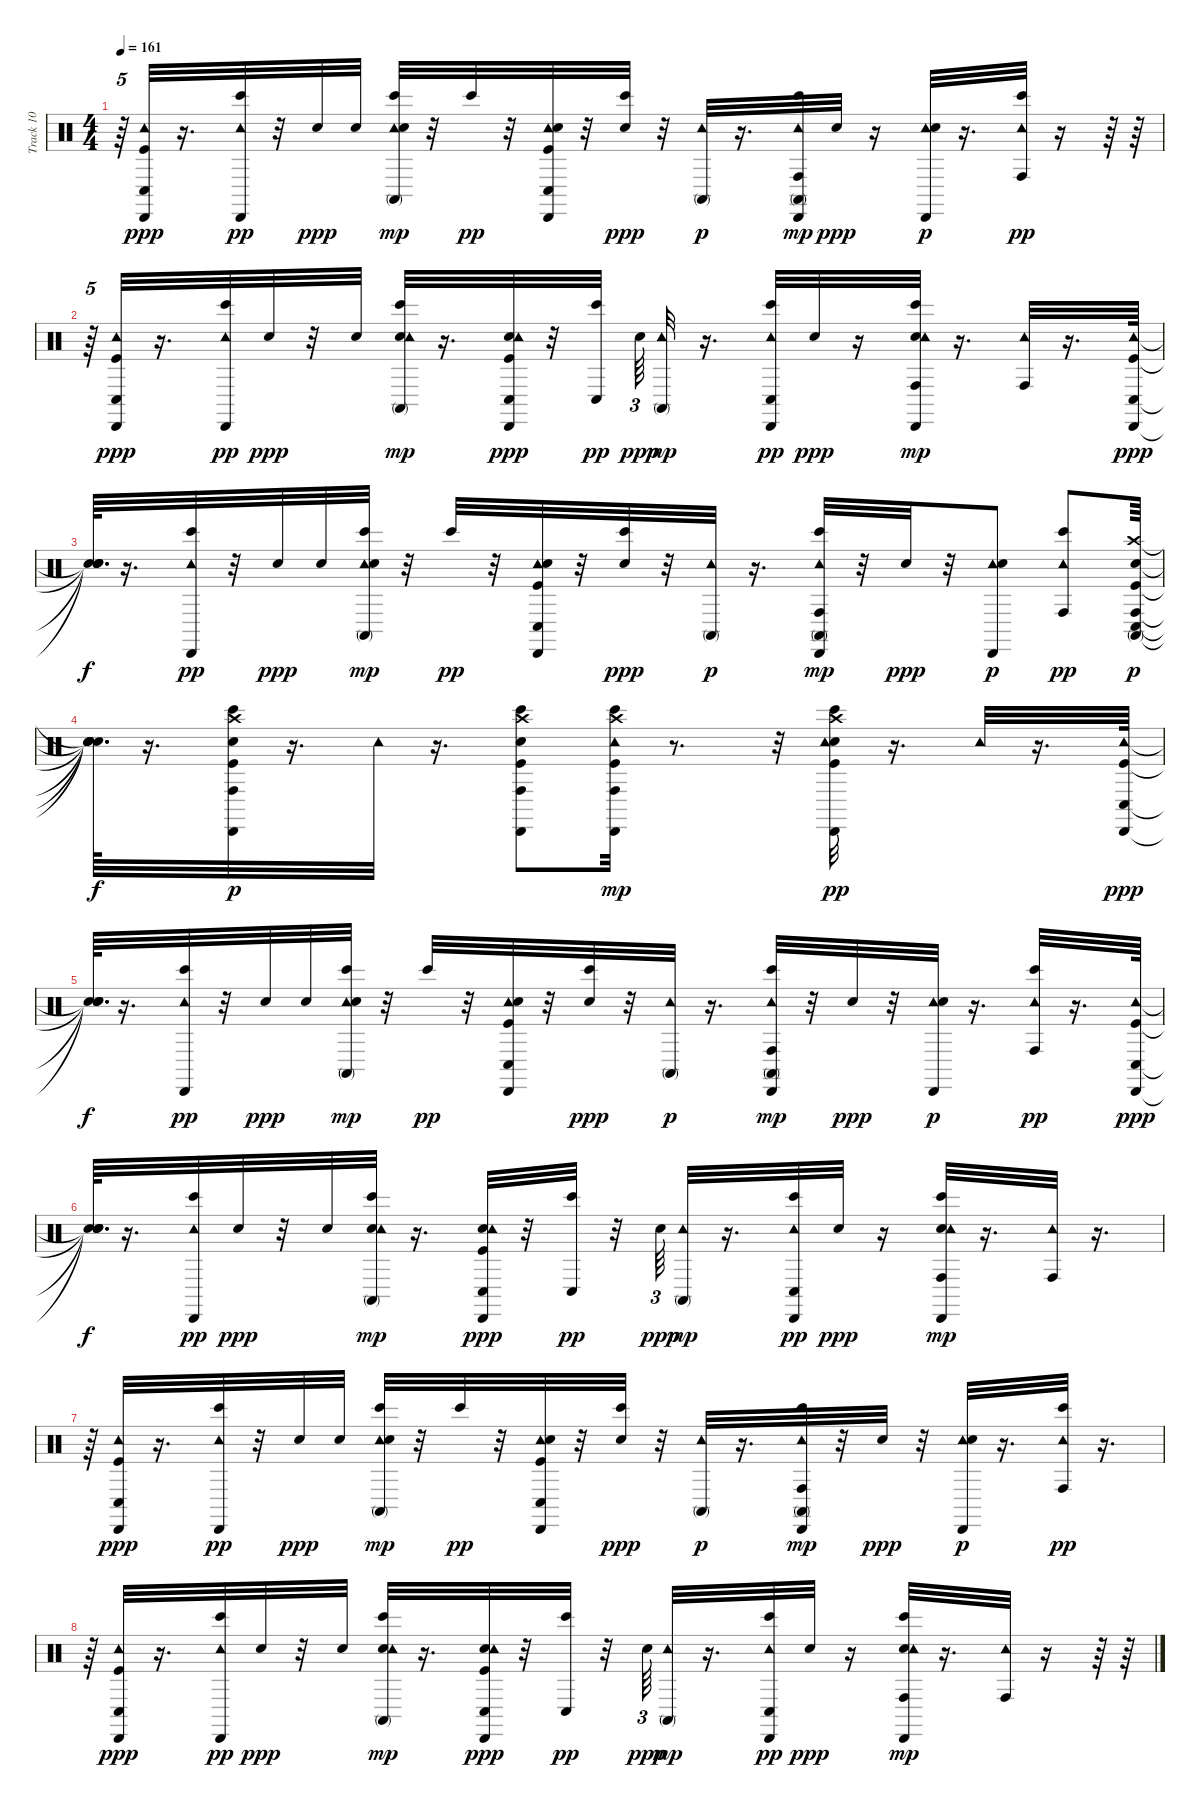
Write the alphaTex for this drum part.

\track ("Track 10" "Track 10") {instrument percussion}
\staff {score}
\articulation defaults
\ts (4 4)
\tempo 161
\clef neutral
\ks c
r.64{tu (5 4) dy mp} ("Kick (hit)" "Tambourine (hit)" "Cabasa (hit)" "Conga low (hit)").32{dy ppp} r.16{d} ("Tambourine (hit)" "Cabasa (hit)" "Bongo High (hit)").32{dy pp} r.32 "Electric Snare (hit)".32{dy ppp} "Electric Snare (hit)".32 ("Tambourine (hit)" "Bongo High (hit)" "Conga high (mute)" "Electric Snare (hit)").32{dy mp} r.32 "Bongo High (hit)".32{dy pp} r.32 ("Tambourine (hit)" "Conga low (hit)" "Cabasa (hit)" "Kick (hit)" "Electric Snare (hit)").32 r.32 ("Bongo High (hit)" "Electric Snare (hit)").32{dy ppp} r.32 ("Tambourine (hit)" "Conga high (mute)").32{dy p} r.16{d} ("Tambourine (hit)" "Cabasa (hit)" "Bongo High (hit)" "Conga high (mute)" "Conga high (hit)").32{dy mp} "Electric Snare (hit)".32{dy ppp} r.16 ("Tambourine (hit)" "Cabasa (hit)" "Electric Snare (hit)").32{dy p} r.16{d} ("Tambourine (hit)" "Conga high (hit)" "Bongo High (hit)").32{dy pp} r.16 r.64 r.64 |
r.64{tu (5 4)} ("Kick (hit)" "Tambourine (hit)" "Cabasa (hit)" "Conga low (hit)").32{dy ppp} r.16{d} ("Tambourine (hit)" "Cabasa (hit)" "Bongo High (hit)").32{dy pp} "Electric Snare (hit)".32{dy ppp} r.32 "Electric Snare (hit)".32 ("Electric Snare (hit)" "Tambourine (hit)" "Bongo High (hit)" "Conga high (mute)").32{dy mp} r.16{d} ("Kick (hit)" "Electric Snare (hit)" "Tambourine (hit)" "Cabasa (hit)" "Conga low (hit)").32{dy ppp} r.32 ("Bongo High (hit)" "Conga low (hit)").32{dy pp beam splitsecondary} "Electric Snare (hit)".64{tu (3 2) dy ppp} ("Tambourine (hit)" "Conga high (mute)").32{dy mp} r.16{d} ("Bongo High (hit)" "Tambourine (hit)" "Cabasa (hit)" "Conga low (hit)").32{dy pp} "Electric Snare (hit)".32{dy ppp} r.16 ("Electric Snare (hit)" "Bongo High (hit)" "Tambourine (hit)" "Cabasa (hit)" "Conga high (hit)").32{dy mp} r.16{d} ("Tambourine (hit)" "Conga high (hit)").32 r.16{d} ("Kick (hit)" "Tambourine (hit)" "Cabasa (hit)" "Conga low (hit)").64{dy ppp} |
("Snare (hit)"{t} "Snare (hit)"{t} "Snare (hit)"{t} "Snare (hit)"{t}).64{d dy f} r.16{d} ("Tambourine (hit)" "Cabasa (hit)" "Bongo High (hit)").32{dy pp} r.32 "Electric Snare (hit)".32{dy ppp} "Electric Snare (hit)".32 ("Tambourine (hit)" "Bongo High (hit)" "Conga high (mute)" "Electric Snare (hit)").32{dy mp} r.32 "Bongo High (hit)".32{dy pp} r.32 ("Tambourine (hit)" "Conga low (hit)" "Cabasa (hit)" "Kick (hit)" "Electric Snare (hit)").32 r.32 ("Bongo High (hit)" "Electric Snare (hit)").32{dy ppp} r.32 ("Tambourine (hit)" "Conga high (mute)").32{dy p} r.16{d} ("Tambourine (hit)" "Cabasa (hit)" "Bongo High (hit)" "Conga high (mute)" "Conga high (hit)").32{dy mp} r.32 "Electric Snare (hit)".32{dy ppp} r.32 ("Tambourine (hit)" "Cabasa (hit)" "Electric Snare (hit)").8{dy p} ("Tambourine (hit)" "Conga high (hit)" "Bongo High (hit)").8{dy pp} ("Conga low (hit)" "Conga high (hit)" "Conga high (mute)" "Electric Snare (hit)" "Crash high (hit)" "Kick (hit)").64{dy p} |
("Snare (hit)"{t} "Snare (hit)"{t} "Snare (hit)"{t} "Snare (hit)"{t} "Snare (hit)"{t} "Snare (hit)"{t}).64{d dy f} r.16{d} ("Conga high (hit)" "Bongo High (hit)" "Cabasa (hit)" "Kick (hit)" "Electric Snare (hit)" "Crash high (hit)").32{dy p} r.16{d} "Tambourine (hit)".32 r.16{d} ("Conga high (hit)" "Kick (hit)" "Bongo High (hit)" "Cabasa (hit)" "Electric Snare (hit)" "Crash high (hit)").8 ("Conga high (hit)" "Cabasa (hit)" "Bongo High (hit)" "Crash high (hit)" "Kick (hit)" "Tambourine (hit)").32{dy mp} r.8{d} r.32 ("Crash high (hit)" "Bongo High (hit)" "Kick (hit)" "Electric Snare (hit)" "Tambourine (hit)" "Cabasa (hit)").32{dy pp} r.16{d} "Tambourine (hit)".32 r.16{d} ("Kick (hit)" "Tambourine (hit)" "Cabasa (hit)" "Conga low (hit)").64{dy ppp} |
("Snare (hit)"{t} "Snare (hit)"{t} "Snare (hit)"{t} "Snare (hit)"{t}).64{d dy f} r.16{d} ("Tambourine (hit)" "Cabasa (hit)" "Bongo High (hit)").32{dy pp} r.32 "Electric Snare (hit)".32{dy ppp} "Electric Snare (hit)".32 ("Tambourine (hit)" "Bongo High (hit)" "Conga high (mute)" "Electric Snare (hit)").32{dy mp} r.32 "Bongo High (hit)".32{dy pp} r.32 ("Tambourine (hit)" "Conga low (hit)" "Cabasa (hit)" "Kick (hit)" "Electric Snare (hit)").32 r.32 ("Bongo High (hit)" "Electric Snare (hit)").32{dy ppp} r.32 ("Tambourine (hit)" "Conga high (mute)").32{dy p} r.16{d} ("Tambourine (hit)" "Cabasa (hit)" "Bongo High (hit)" "Conga high (mute)" "Conga high (hit)").32{dy mp} r.32 "Electric Snare (hit)".32{dy ppp} r.32 ("Tambourine (hit)" "Cabasa (hit)" "Electric Snare (hit)").32{dy p} r.16{d} ("Tambourine (hit)" "Conga high (hit)" "Bongo High (hit)").32{dy pp} r.16{d} ("Kick (hit)" "Tambourine (hit)" "Cabasa (hit)" "Conga low (hit)").64{dy ppp} |
("Snare (hit)"{t} "Snare (hit)"{t} "Snare (hit)"{t} "Snare (hit)"{t}).64{d dy f} r.16{d} ("Tambourine (hit)" "Cabasa (hit)" "Bongo High (hit)").32{dy pp} "Electric Snare (hit)".32{dy ppp} r.32 "Electric Snare (hit)".32 ("Electric Snare (hit)" "Tambourine (hit)" "Bongo High (hit)" "Conga high (mute)").32{dy mp} r.16{d} ("Kick (hit)" "Electric Snare (hit)" "Tambourine (hit)" "Cabasa (hit)" "Conga low (hit)").32{dy ppp} r.32 ("Bongo High (hit)" "Conga low (hit)").32{dy pp} r.32 "Electric Snare (hit)".64{tu (3 2) dy ppp} ("Tambourine (hit)" "Conga high (mute)").32{dy mp} r.16{d} ("Bongo High (hit)" "Tambourine (hit)" "Cabasa (hit)" "Conga low (hit)").32{dy pp} "Electric Snare (hit)".32{dy ppp} r.16 ("Electric Snare (hit)" "Bongo High (hit)" "Tambourine (hit)" "Cabasa (hit)" "Conga high (hit)").32{dy mp} r.16{d} ("Tambourine (hit)" "Conga high (hit)").32 r.16{d} |
r.64 ("Kick (hit)" "Tambourine (hit)" "Cabasa (hit)" "Conga low (hit)").32{dy ppp} r.16{d} ("Tambourine (hit)" "Cabasa (hit)" "Bongo High (hit)").32{dy pp} r.32 "Electric Snare (hit)".32{dy ppp} "Electric Snare (hit)".32 ("Tambourine (hit)" "Bongo High (hit)" "Conga high (mute)" "Electric Snare (hit)").32{dy mp} r.32 "Bongo High (hit)".32{dy pp} r.32 ("Tambourine (hit)" "Conga low (hit)" "Cabasa (hit)" "Kick (hit)" "Electric Snare (hit)").32 r.32 ("Bongo High (hit)" "Electric Snare (hit)").32{dy ppp} r.32 ("Tambourine (hit)" "Conga high (mute)").32{dy p} r.16{d} ("Tambourine (hit)" "Cabasa (hit)" "Bongo High (hit)" "Conga high (mute)" "Conga high (hit)").32{dy mp} r.32 "Electric Snare (hit)".32{dy ppp} r.32 ("Tambourine (hit)" "Cabasa (hit)" "Electric Snare (hit)").32{dy p} r.16{d} ("Tambourine (hit)" "Conga high (hit)" "Bongo High (hit)").32{dy pp} r.16{d} |
r.64 ("Kick (hit)" "Tambourine (hit)" "Cabasa (hit)" "Conga low (hit)").32{dy ppp} r.16{d} ("Tambourine (hit)" "Cabasa (hit)" "Bongo High (hit)").32{dy pp} "Electric Snare (hit)".32{dy ppp} r.32 "Electric Snare (hit)".32 ("Electric Snare (hit)" "Tambourine (hit)" "Bongo High (hit)" "Conga high (mute)").32{dy mp} r.16{d} ("Kick (hit)" "Electric Snare (hit)" "Tambourine (hit)" "Cabasa (hit)" "Conga low (hit)").32{dy ppp} r.32 ("Bongo High (hit)" "Conga low (hit)").32{dy pp} r.32 "Electric Snare (hit)".64{tu (3 2) dy ppp} ("Tambourine (hit)" "Conga high (mute)").32{dy mp} r.16{d} ("Bongo High (hit)" "Tambourine (hit)" "Cabasa (hit)" "Conga low (hit)").32{dy pp} "Electric Snare (hit)".32{dy ppp} r.16 ("Electric Snare (hit)" "Bongo High (hit)" "Tambourine (hit)" "Cabasa (hit)" "Conga high (hit)").32{dy mp} r.16{d} ("Tambourine (hit)" "Conga high (hit)").32 r.16 r.64 r.64
